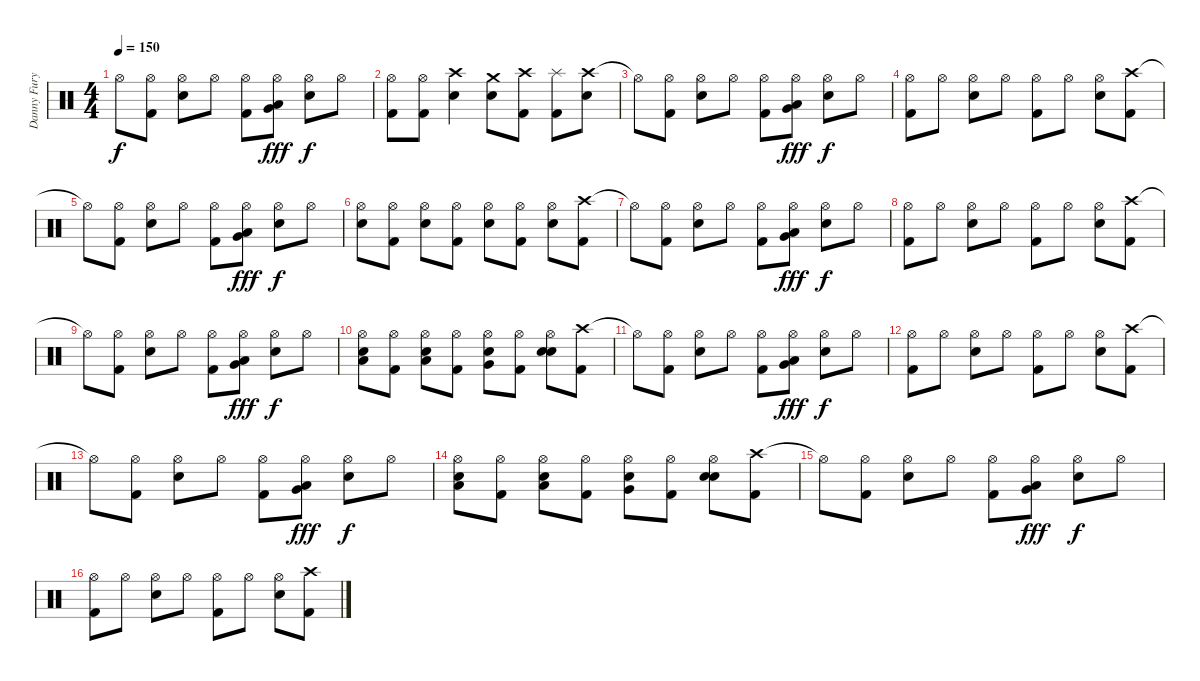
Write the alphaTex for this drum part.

\track ("Danny Fury" "Danny Fury") {instrument percussion}
\staff {score}
\articulation defaults
\ts (4 4)
\tempo 150
\clef neutral
\ks c "Hi-Hat (open)"{t}.8{dy f}
("Hi-Hat (open)" "Kick (hit) 2").8 ("Hi-Hat (open)" "Electric Snare (hit)").8 "Hi-Hat (open)".8 ("Hi-Hat (open)" "Kick (hit) 2").8 ("Hi-Hat (open)" "Low Floor Tom (hit)" "Very Low Tom (hit)").8{dy fff} ("Hi-Hat (open)" "Electric Snare (hit)").8{dy f} "Hi-Hat (open)".8 |
("Hi-Hat (open)" "Kick (hit) 2").8 ("Hi-Hat (open)" "Kick (hit) 2").8 ("Crash high (hit)" "Electric Snare (hit)").4 ("Crash medium (hit)" "Electric Snare (hit)").8 ("Crash high (hit)" "Kick (hit) 2").8 ("Splash (hit)" "Kick (hit) 2").8 ("Crash high (hit)" "Electric Snare (hit)").8 |
"Hi-Hat (open)"{t}.8 ("Hi-Hat (open)" "Kick (hit) 2").8 ("Hi-Hat (open)" "Electric Snare (hit)").8 "Hi-Hat (open)".8 ("Hi-Hat (open)" "Kick (hit) 2").8 ("Hi-Hat (open)" "Low Floor Tom (hit)" "Very Low Tom (hit)").8{dy fff} ("Hi-Hat (open)" "Electric Snare (hit)").8{dy f} "Hi-Hat (open)".8 |
("Hi-Hat (open)" "Kick (hit) 2").8 "Hi-Hat (open)".8 ("Hi-Hat (open)" "Electric Snare (hit)").8 "Hi-Hat (open)".8 ("Hi-Hat (open)" "Kick (hit) 2").8 "Hi-Hat (open)".8 ("Hi-Hat (open)" "Electric Snare (hit)").8 ("Crash high (hit)" "Kick (hit) 2").8 |
"Hi-Hat (open)"{t}.8 ("Hi-Hat (open)" "Kick (hit) 2").8 ("Hi-Hat (open)" "Electric Snare (hit)").8 "Hi-Hat (open)".8 ("Hi-Hat (open)" "Kick (hit) 2").8 ("Hi-Hat (open)" "Low Floor Tom (hit)" "Very Low Tom (hit)").8{dy fff} ("Hi-Hat (open)" "Electric Snare (hit)").8{dy f} "Hi-Hat (open)".8 |
("Hi-Hat (open)" "Electric Snare (hit)").8 ("Hi-Hat (open)" "Kick (hit) 2").8 ("Hi-Hat (open)" "Electric Snare (hit)").8 ("Hi-Hat (open)" "Kick (hit) 2").8 ("Hi-Hat (open)" "Electric Snare (hit)").8 ("Hi-Hat (open)" "Kick (hit) 2").8 ("Hi-Hat (open)" "Electric Snare (hit)").8 ("Crash high (hit)" "Kick (hit) 2").8 |
"Hi-Hat (open)"{t}.8 ("Hi-Hat (open)" "Kick (hit) 2").8 ("Hi-Hat (open)" "Electric Snare (hit)").8 "Hi-Hat (open)".8 ("Hi-Hat (open)" "Kick (hit) 2").8 ("Hi-Hat (open)" "Low Floor Tom (hit)" "Very Low Tom (hit)").8{dy fff} ("Hi-Hat (open)" "Electric Snare (hit)").8{dy f} "Hi-Hat (open)".8 |
("Hi-Hat (open)" "Kick (hit) 2").8 "Hi-Hat (open)".8 ("Hi-Hat (open)" "Electric Snare (hit)").8 "Hi-Hat (open)".8 ("Hi-Hat (open)" "Kick (hit) 2").8 "Hi-Hat (open)".8 ("Hi-Hat (open)" "Electric Snare (hit)").8 ("Crash high (hit)" "Kick (hit) 2").8 |
"Hi-Hat (open)"{t}.8 ("Hi-Hat (open)" "Kick (hit) 2").8 ("Hi-Hat (open)" "Electric Snare (hit)").8 "Hi-Hat (open)".8 ("Hi-Hat (open)" "Kick (hit) 2").8 ("Hi-Hat (open)" "Low Floor Tom (hit)" "Very Low Tom (hit)").8{dy fff} ("Hi-Hat (open)" "Electric Snare (hit)").8{dy f} "Hi-Hat (open)".8 |
("Hi-Hat (open)" "Low Tom (hit)" "Electric Snare (hit)").8 ("Hi-Hat (open)" "Kick (hit) 2").8 ("Hi-Hat (open)" "Low Floor Tom (hit)" "Electric Snare (hit)").8 ("Hi-Hat (open)" "Kick (hit) 2").8 ("Hi-Hat (open)" "Very Low Tom (hit)" "Electric Snare (hit)").8 ("Hi-Hat (open)" "Kick (hit) 2").8 ("Hi-Hat (open)" "Snare (hit) 2" "Electric Snare (hit)").8 ("Crash high (hit)" "Kick (hit) 2").8 |
"Hi-Hat (open)"{t}.8 ("Hi-Hat (open)" "Kick (hit) 2").8 ("Hi-Hat (open)" "Electric Snare (hit)").8 "Hi-Hat (open)".8 ("Hi-Hat (open)" "Kick (hit) 2").8 ("Hi-Hat (open)" "Low Floor Tom (hit)" "Very Low Tom (hit)").8{dy fff} ("Hi-Hat (open)" "Electric Snare (hit)").8{dy f} "Hi-Hat (open)".8 |
("Hi-Hat (open)" "Kick (hit) 2").8 "Hi-Hat (open)".8 ("Hi-Hat (open)" "Electric Snare (hit)").8 "Hi-Hat (open)".8 ("Hi-Hat (open)" "Kick (hit) 2").8 "Hi-Hat (open)".8 ("Hi-Hat (open)" "Electric Snare (hit)").8 ("Crash high (hit)" "Kick (hit) 2").8 |
"Hi-Hat (open)"{t}.8 ("Hi-Hat (open)" "Kick (hit) 2").8 ("Hi-Hat (open)" "Electric Snare (hit)").8 "Hi-Hat (open)".8 ("Hi-Hat (open)" "Kick (hit) 2").8 ("Hi-Hat (open)" "Low Floor Tom (hit)" "Very Low Tom (hit)").8{dy fff} ("Hi-Hat (open)" "Electric Snare (hit)").8{dy f} "Hi-Hat (open)".8 |
("Hi-Hat (open)" "Low Tom (hit)" "Electric Snare (hit)").8 ("Hi-Hat (open)" "Kick (hit) 2").8 ("Hi-Hat (open)" "Low Floor Tom (hit)" "Electric Snare (hit)").8 ("Hi-Hat (open)" "Kick (hit) 2").8 ("Hi-Hat (open)" "Very Low Tom (hit)" "Electric Snare (hit)").8 ("Hi-Hat (open)" "Kick (hit) 2").8 ("Hi-Hat (open)" "Snare (hit) 2" "Electric Snare (hit)").8 ("Crash high (hit)" "Kick (hit) 2").8 |
"Hi-Hat (open)"{t}.8 ("Hi-Hat (open)" "Kick (hit) 2").8 ("Hi-Hat (open)" "Electric Snare (hit)").8 "Hi-Hat (open)".8 ("Hi-Hat (open)" "Kick (hit) 2").8 ("Hi-Hat (open)" "Low Floor Tom (hit)" "Very Low Tom (hit)").8{dy fff} ("Hi-Hat (open)" "Electric Snare (hit)").8{dy f} "Hi-Hat (open)".8 |
("Hi-Hat (open)" "Kick (hit) 2").8 "Hi-Hat (open)".8 ("Hi-Hat (open)" "Electric Snare (hit)").8 "Hi-Hat (open)".8 ("Hi-Hat (open)" "Kick (hit) 2").8 "Hi-Hat (open)".8 ("Hi-Hat (open)" "Electric Snare (hit)").8 ("Crash high (hit)" "Kick (hit) 2").8
